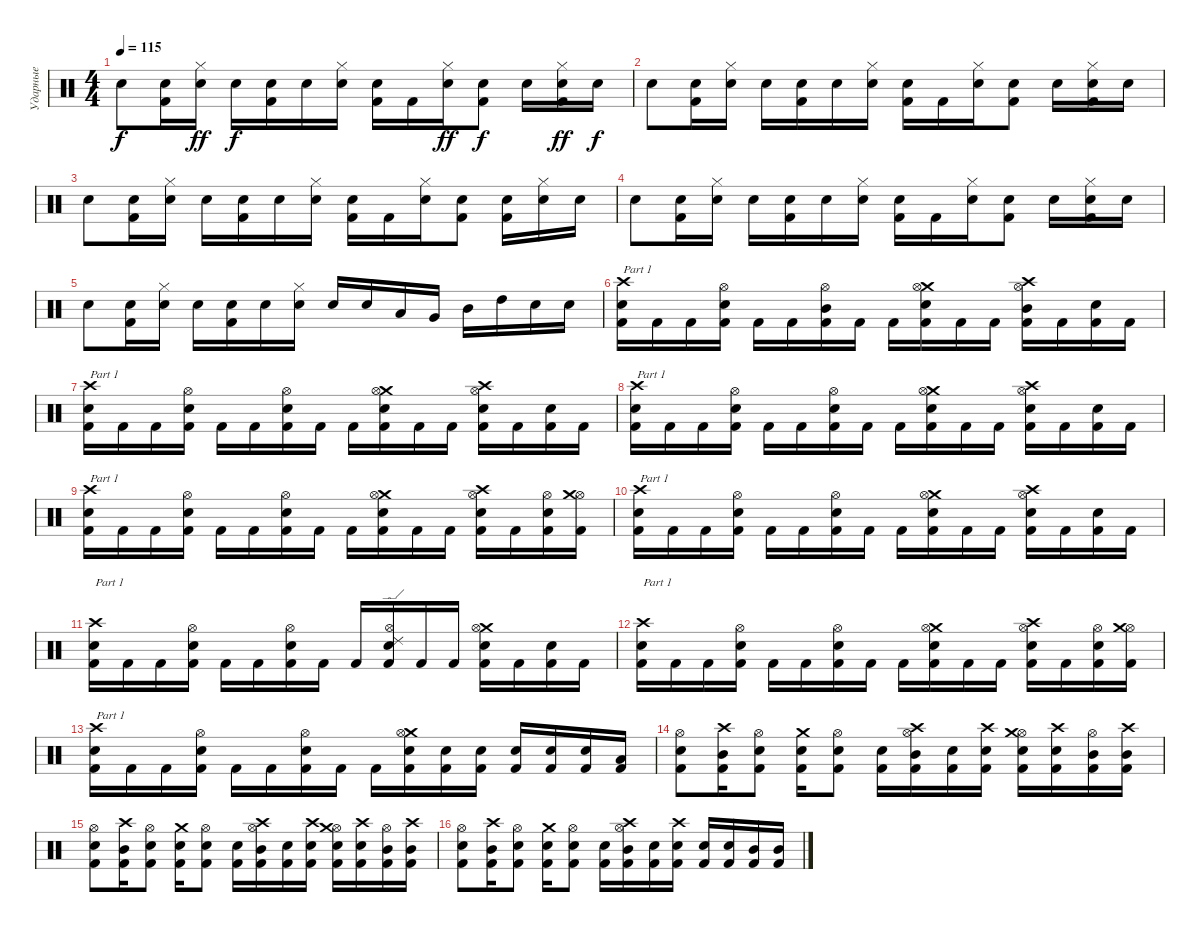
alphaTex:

\track ("Ударные" "Ударные") {instrument percussion}
\staff {score}
\articulation defaults
\ts (4 4)
\tempo 115
\clef neutral
\ks c "Electric Snare (hit)".8{dy f}
("Snare (hit) 2" "Kick (hit) 2").16 ("Hi-Hat (closed)" "Electric Snare (hit)").16{dy ff} "Electric Snare (hit)".16{dy f} ("Snare (hit) 2" "Kick (hit) 2").16 "Electric Snare (hit)".16 ("Hi-Hat (closed)" "Electric Snare (hit)").16 ("Snare (hit) 2" "Kick (hit) 2").16 "Kick (hit) 2".16 ("Hi-Hat (closed)" "Electric Snare (hit)").16{dy ff} ("Snare (hit) 2" "Kick (hit) 2").8{dy f} "Electric Snare (hit)".16 ("Hi-Hat (closed)" "Snare (hit) 2" "Kick (hit) 2").16{dy ff} "Electric Snare (hit)".16{dy f} |
"Electric Snare (hit)".8 ("Snare (hit) 2" "Kick (hit) 2").16 ("Hi-Hat (closed)" "Electric Snare (hit)").16 "Electric Snare (hit)".16 ("Snare (hit) 2" "Kick (hit) 2").16 "Electric Snare (hit)".16 ("Hi-Hat (closed)" "Electric Snare (hit)").16 ("Snare (hit) 2" "Kick (hit) 2").16 "Kick (hit) 2".16 ("Hi-Hat (closed)" "Electric Snare (hit)").16 ("Snare (hit) 2" "Kick (hit) 2").8 "Snare (hit) 2".16 ("Hi-Hat (closed)" "Snare (hit) 2" "Kick (hit) 2").16 "Electric Snare (hit)".16 |
"Electric Snare (hit)".8 ("Snare (hit) 2" "Kick (hit) 2").16 ("Hi-Hat (closed)" "Electric Snare (hit)").16 "Electric Snare (hit)".16 ("Snare (hit) 2" "Kick (hit) 2").16 "Electric Snare (hit)".16 ("Hi-Hat (closed)" "Electric Snare (hit)").16 ("Snare (hit) 2" "Kick (hit) 2").16 "Kick (hit) 2".16 ("Hi-Hat (closed)" "Electric Snare (hit)").16 ("Snare (hit) 2" "Kick (hit) 2").8 ("Electric Snare (hit)" "Kick (hit) 2").16 ("Hi-Hat (closed)" "Snare (hit) 2").16 "Electric Snare (hit)".16 |
"Electric Snare (hit)".8 ("Snare (hit) 2" "Kick (hit) 2").16 ("Hi-Hat (closed)" "Electric Snare (hit)").16 "Electric Snare (hit)".16 ("Snare (hit) 2" "Kick (hit) 2").16 "Electric Snare (hit)".16 ("Hi-Hat (closed)" "Electric Snare (hit)").16 ("Snare (hit) 2" "Kick (hit) 2").16 "Kick (hit) 2".16 ("Hi-Hat (closed)" "Electric Snare (hit)").16 ("Snare (hit) 2" "Kick (hit) 2").8 "Snare (hit) 2".16 ("Hi-Hat (closed)" "Snare (hit) 2" "Kick (hit) 2").16 "Electric Snare (hit)".16 |
"Electric Snare (hit)".8 ("Snare (hit) 2" "Kick (hit) 2").16 ("Hi-Hat (closed)" "Electric Snare (hit)").16 "Electric Snare (hit)".16 ("Snare (hit) 2" "Kick (hit) 2").16 "Electric Snare (hit)".16 ("Hi-Hat (closed)" "Electric Snare (hit)").16 "Snare (hit) 2".16 "Electric Snare (hit)".16 "Low Floor Tom (hit)".16 "Very Low Tom (hit)".16 "Mid Tom (hit)".16 "High Tom (hit)".16 "Snare (hit) 2".16 "Electric Snare (hit)".16 |
("Crash high (hit)" "Snare (hit) 2" "Kick (hit) 2").16{txt "Part 1"} "Kick (hit) 2".16 "Kick (hit) 2".16 ("Hi-Hat (open)" "Electric Snare (hit)" "Kick (hit) 2").16 "Kick (hit) 2".16 "Kick (hit) 2".16 ("Hi-Hat (open)" "Mid Tom (hit)" "Kick (hit) 2").16 "Kick (hit) 2".16 "Kick (hit) 2".16 ("Crash medium (hit)" "Hi-Hat (open)" "Electric Snare (hit)" "Kick (hit) 2").16 "Kick (hit) 2".16 "Kick (hit) 2".16 ("Crash high (hit)" "Hi-Hat (open)" "Mid Tom (hit)" "Kick (hit) 2").16 "Kick (hit) 2".16 ("Snare (hit) 2" "Kick (hit) 2").16 "Kick (hit) 2".16 |
("Crash high (hit)" "Snare (hit) 2" "Kick (hit) 2").16{txt "Part 1"} "Kick (hit) 2".16 "Kick (hit) 2".16 ("Hi-Hat (open)" "Snare (hit) 2" "Kick (hit) 2").16 "Kick (hit) 2".16 "Kick (hit) 2".16 ("Hi-Hat (open)" "Snare (hit) 2" "Kick (hit) 2").16 "Kick (hit) 2".16 "Kick (hit) 2".16 ("Crash medium (hit)" "Hi-Hat (open)" "Snare (hit) 2" "Kick (hit) 2").16 "Kick (hit) 2".16 "Kick (hit) 2".16 ("Crash high (hit)" "Hi-Hat (open)" "Snare (hit) 2" "Kick (hit) 2").16 "Kick (hit) 2".16 ("Snare (hit) 2" "Kick (hit) 2").16 "Kick (hit) 2".16 |
("Crash high (hit)" "Snare (hit) 2" "Kick (hit) 2").16{txt "Part 1"} "Kick (hit) 2".16 "Kick (hit) 2".16 ("Hi-Hat (open)" "Snare (hit) 2" "Kick (hit) 2").16 "Kick (hit) 2".16 "Kick (hit) 2".16 ("Hi-Hat (open)" "Snare (hit) 2" "Kick (hit) 2").16 "Kick (hit) 2".16 "Kick (hit) 2".16 ("Crash medium (hit)" "Hi-Hat (open)" "Snare (hit) 2" "Kick (hit) 2").16 "Kick (hit) 2".16 "Kick (hit) 2".16 ("Crash high (hit)" "Hi-Hat (open)" "Snare (hit) 2" "Kick (hit) 2").16 "Kick (hit) 2".16 ("Snare (hit) 2" "Kick (hit) 2").16 "Kick (hit) 2".16 |
("Crash high (hit)" "Snare (hit) 2" "Kick (hit) 2").16{txt "Part 1"} "Kick (hit) 2".16 "Kick (hit) 2".16 ("Hi-Hat (open)" "Snare (hit) 2" "Kick (hit) 2").16 "Kick (hit) 2".16 "Kick (hit) 2".16 ("Hi-Hat (open)" "Snare (hit) 2" "Kick (hit) 2").16 "Kick (hit) 2".16 "Kick (hit) 2".16 ("Crash medium (hit)" "Hi-Hat (open)" "Snare (hit) 2" "Kick (hit) 2").16 "Kick (hit) 2".16 "Kick (hit) 2".16 ("Crash high (hit)" "Hi-Hat (open)" "Snare (hit) 2" "Kick (hit) 2").16 "Kick (hit) 2".16 ("Hi-Hat (open)" "Snare (hit) 2" "Kick (hit) 2").16 ("Hi-Hat (open)" "Crash medium (hit)" "Kick (hit) 2").16 |
("Crash high (hit)" "Snare (hit) 2" "Kick (hit) 2").16{txt "Part 1"} "Kick (hit) 2".16 "Kick (hit) 2".16 ("Hi-Hat (open)" "Snare (hit) 2" "Kick (hit) 2").16 "Kick (hit) 2".16 "Kick (hit) 2".16 ("Hi-Hat (open)" "Snare (hit) 2" "Kick (hit) 2").16 "Kick (hit) 2".16 "Kick (hit) 2".16 ("Crash medium (hit)" "Hi-Hat (open)" "Snare (hit) 2" "Kick (hit) 2").16 "Kick (hit) 2".16 "Kick (hit) 2".16 ("Crash high (hit)" "Hi-Hat (open)" "Snare (hit) 2" "Kick (hit) 2").16 "Kick (hit) 2".16 ("Snare (hit) 2" "Kick (hit) 2").16 "Kick (hit) 2".16 |
("Crash high (hit)" "Snare (hit) 2" "Kick (hit) 2").16{txt "Part 1"} "Kick (hit) 2".16 "Kick (hit) 2".16 ("Hi-Hat (open)" "Snare (hit) 2" "Kick (hit) 2").16 "Kick (hit) 2".16 "Kick (hit) 2".16 ("Hi-Hat (open)" "Snare (hit) 2" "Kick (hit) 2").16 "Kick (hit) 2".16 "Kick (hit) 2".16 ("Ride (edge) 2" "Hi-Hat (open)" "Snare (hit) 2" "Kick (hit) 2").16 "Kick (hit) 2".16 "Kick (hit) 2".16 ("Crash medium (hit)" "Hi-Hat (open)" "Snare (hit) 2" "Kick (hit) 2").16 "Kick (hit) 2".16 ("Snare (hit) 2" "Kick (hit) 2").16 "Kick (hit) 2".16 |
("Crash high (hit)" "Snare (hit) 2" "Kick (hit) 2").16{txt "Part 1"} "Kick (hit) 2".16 "Kick (hit) 2".16 ("Hi-Hat (open)" "Snare (hit) 2" "Kick (hit) 2").16 "Kick (hit) 2".16 "Kick (hit) 2".16 ("Hi-Hat (open)" "Snare (hit) 2" "Kick (hit) 2").16 "Kick (hit) 2".16 "Kick (hit) 2".16 ("Crash medium (hit)" "Hi-Hat (open)" "Snare (hit) 2" "Kick (hit) 2").16 "Kick (hit) 2".16 "Kick (hit) 2".16 ("Crash high (hit)" "Hi-Hat (open)" "Snare (hit) 2" "Kick (hit) 2").16 "Kick (hit) 2".16 ("Hi-Hat (open)" "Snare (hit) 2" "Kick (hit) 2").16 ("Hi-Hat (open)" "Crash medium (hit)" "Kick (hit) 2").16 |
("Crash high (hit)" "Snare (hit) 2" "Kick (hit) 2").16{txt "Part 1"} "Kick (hit) 2".16 "Kick (hit) 2".16 ("Hi-Hat (open)" "Snare (hit) 2" "Kick (hit) 2").16 "Kick (hit) 2".16 "Kick (hit) 2".16 ("Hi-Hat (open)" "Snare (hit) 2" "Kick (hit) 2").16 "Kick (hit) 2".16 "Kick (hit) 2".16 ("Crash medium (hit)" "Hi-Hat (open)" "Snare (hit) 2" "Kick (hit) 2").16 ("Snare (hit) 2" "Kick (hit) 2").16 ("Electric Snare (hit)" "Kick (hit) 2").16 ("Snare (hit) 2" "Kick (hit) 2").16 ("Snare (hit) 2" "Kick (hit) 2").16 ("Snare (hit) 2" "Kick (hit) 2").16 ("Low Floor Tom (hit)" "Kick (hit) 2").16 |
("Hi-Hat (open)" "Snare (hit) 2" "Kick (hit) 2").8 ("Crash high (hit)" "Mid Tom (hit)" "Kick (hit) 2").16 ("Hi-Hat (open)" "Snare (hit) 2" "Kick (hit) 2").8 ("Crash medium (hit)" "Snare (hit) 2" "Kick (hit) 2").16 ("Hi-Hat (open)" "Snare (hit) 2" "Kick (hit) 2").8 ("Snare (hit) 2" "Kick (hit) 2").16 ("Crash high (hit)" "Hi-Hat (open)" "Mid Tom (hit)" "Kick (hit) 2").16 ("Snare (hit) 2" "Kick (hit) 2").16 ("Crash high (hit)" "Snare (hit) 2" "Kick (hit) 2").16 ("Hi-Hat (open)" "Crash medium (hit)" "Snare (hit) 2" "Kick (hit) 2").16 ("Crash high (hit)" "Snare (hit) 2" "Kick (hit) 2").16 ("Hi-Hat (open)" "Mid Tom (hit)" "Kick (hit) 2").16 ("Crash high (hit)" "Mid Tom (hit)" "Kick (hit) 2").16 |
("Hi-Hat (open)" "Snare (hit) 2" "Kick (hit) 2").8 ("Crash high (hit)" "Mid Tom (hit)" "Kick (hit) 2").16 ("Hi-Hat (open)" "Snare (hit) 2" "Kick (hit) 2").8 ("Crash medium (hit)" "Snare (hit) 2" "Kick (hit) 2").16 ("Hi-Hat (open)" "Snare (hit) 2" "Kick (hit) 2").8 ("Snare (hit) 2" "Kick (hit) 2").16 ("Crash high (hit)" "Hi-Hat (open)" "Mid Tom (hit)" "Kick (hit) 2").16 ("Snare (hit) 2" "Kick (hit) 2").16 ("Crash high (hit)" "Snare (hit) 2" "Kick (hit) 2").16 ("Hi-Hat (open)" "Crash medium (hit)" "Snare (hit) 2" "Kick (hit) 2").16 ("Crash high (hit)" "Snare (hit) 2" "Kick (hit) 2").16 ("Hi-Hat (open)" "Mid Tom (hit)" "Kick (hit) 2").16 ("Crash high (hit)" "Mid Tom (hit)" "Kick (hit) 2").16 |
("Hi-Hat (open)" "Snare (hit) 2" "Kick (hit) 2").8 ("Crash high (hit)" "Mid Tom (hit)" "Kick (hit) 2").16 ("Hi-Hat (open)" "Snare (hit) 2" "Kick (hit) 2").8 ("Crash medium (hit)" "Snare (hit) 2" "Kick (hit) 2").16 ("Hi-Hat (open)" "Snare (hit) 2" "Kick (hit) 2").8 ("Snare (hit) 2" "Kick (hit) 2").16 ("Crash high (hit)" "Hi-Hat (open)" "Mid Tom (hit)" "Kick (hit) 2").16 ("Snare (hit) 2" "Kick (hit) 2").16 ("Crash high (hit)" "Snare (hit) 2" "Kick (hit) 2").16 ("Snare (hit) 2" "Kick (hit) 2").16 ("Snare (hit) 2" "Kick (hit) 2").16 ("Mid Tom (hit)" "Kick (hit) 2").16 ("Mid Tom (hit)" "Kick (hit) 2").16
